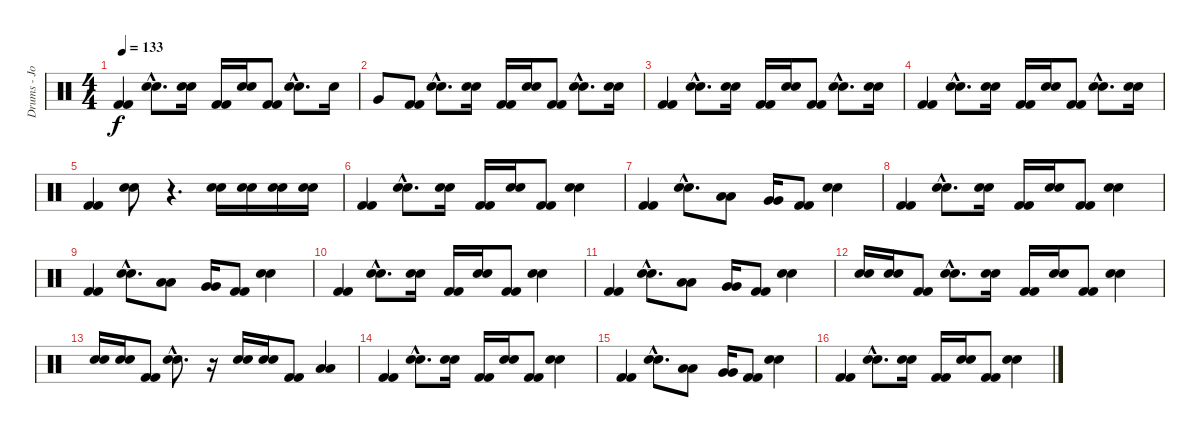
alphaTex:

\track ("Drums - Joe Daniels" "Drums - Jo") {instrument percussion}
\staff {score}
\articulation defaults
\ts (4 4)
\tempo 133
\clef neutral
\ks c
("Kick (hit) 2" "Kick (hit) 2").4{dy f} ("Snare (hit) 2"{hac} "Snare (hit) 2"{hac}).8{d} ("Snare (hit) 2" "Snare (hit) 2").16 ("Kick (hit) 2" "Kick (hit) 2").16 ("Snare (hit) 2" "Snare (hit) 2").16 ("Kick (hit) 2" "Kick (hit) 2").8 ("Snare (hit) 2"{hac} "Snare (hit) 2"{hac}).8{d} "Snare (hit) 2".16 |
"Very Low Tom (hit)".8 ("Kick (hit) 2" "Kick (hit) 2").8 ("Snare (hit) 2"{hac} "Snare (hit) 2"{hac}).8{d} ("Snare (hit) 2" "Snare (hit) 2").16 ("Kick (hit) 2" "Kick (hit) 2").16 ("Snare (hit) 2" "Snare (hit) 2").16 ("Kick (hit) 2" "Kick (hit) 2").8 ("Snare (hit) 2"{hac} "Snare (hit) 2"{hac}).8{d} ("Snare (hit) 2" "Snare (hit) 2").16 |
("Kick (hit) 2" "Kick (hit) 2").4 ("Snare (hit) 2"{hac} "Snare (hit) 2"{hac}).8{d} ("Snare (hit) 2" "Snare (hit) 2").16 ("Kick (hit) 2" "Kick (hit) 2").16 ("Snare (hit) 2" "Snare (hit) 2").16 ("Kick (hit) 2" "Kick (hit) 2").8 ("Snare (hit) 2"{hac} "Snare (hit) 2"{hac}).8{d} ("Snare (hit) 2" "Snare (hit) 2").16 |
("Kick (hit) 2" "Kick (hit) 2").4 ("Snare (hit) 2"{hac} "Snare (hit) 2"{hac}).8{d} ("Snare (hit) 2" "Snare (hit) 2").16 ("Kick (hit) 2" "Kick (hit) 2").16 ("Snare (hit) 2" "Snare (hit) 2").16 ("Kick (hit) 2" "Kick (hit) 2").8 ("Snare (hit) 2"{hac} "Snare (hit) 2"{hac}).8{d} ("Snare (hit) 2" "Snare (hit) 2").16 |
("Kick (hit) 2" "Kick (hit) 2").4 ("Snare (hit) 2" "Snare (hit) 2").8 r.4{d} ("Snare (hit) 2" "Snare (hit) 2").16 ("Snare (hit) 2" "Snare (hit) 2").16 ("Snare (hit) 2" "Snare (hit) 2").16 ("Snare (hit) 2" "Snare (hit) 2").16 |
("Kick (hit) 2" "Kick (hit) 2").4 ("Snare (hit) 2"{hac} "Snare (hit) 2"{hac}).8{d} ("Snare (hit) 2" "Snare (hit) 2").16 ("Kick (hit) 2" "Kick (hit) 2").16 ("Snare (hit) 2" "Snare (hit) 2").16 ("Kick (hit) 2" "Kick (hit) 2").8 ("Snare (hit) 2" "Snare (hit) 2").4 |
("Kick (hit) 2" "Kick (hit) 2").4 ("Snare (hit) 2"{hac} "Snare (hit) 2"{hac}).8{d} ("Low Tom (hit)" "Low Tom (hit)").8 ("Very Low Tom (hit)" "Very Low Tom (hit)").16 ("Kick (hit) 2" "Kick (hit) 2").8 ("Snare (hit) 2" "Snare (hit) 2").4 |
("Kick (hit) 2" "Kick (hit) 2").4 ("Snare (hit) 2"{hac} "Snare (hit) 2"{hac}).8{d} ("Snare (hit) 2" "Snare (hit) 2").16 ("Kick (hit) 2" "Kick (hit) 2").16 ("Snare (hit) 2" "Snare (hit) 2").16 ("Kick (hit) 2" "Kick (hit) 2").8 ("Snare (hit) 2" "Snare (hit) 2").4 |
("Kick (hit) 2" "Kick (hit) 2").4 ("Snare (hit) 2"{hac} "Snare (hit) 2"{hac}).8{d} ("Low Tom (hit)" "Low Tom (hit)").8 ("Very Low Tom (hit)" "Very Low Tom (hit)").16 ("Kick (hit) 2" "Kick (hit) 2").8 ("Snare (hit) 2" "Snare (hit) 2").4 |
("Kick (hit) 2" "Kick (hit) 2").4 ("Snare (hit) 2"{hac} "Snare (hit) 2"{hac}).8{d} ("Snare (hit) 2" "Snare (hit) 2").16 ("Kick (hit) 2" "Kick (hit) 2").16 ("Snare (hit) 2" "Snare (hit) 2").16 ("Kick (hit) 2" "Kick (hit) 2").8 ("Snare (hit) 2" "Snare (hit) 2").4 |
("Kick (hit) 2" "Kick (hit) 2").4 ("Snare (hit) 2"{hac} "Snare (hit) 2"{hac}).8{d} ("Low Tom (hit)" "Low Tom (hit)").8 ("Very Low Tom (hit)" "Very Low Tom (hit)").16 ("Kick (hit) 2" "Kick (hit) 2").8 ("Snare (hit) 2" "Snare (hit) 2").4 |
("Snare (hit) 2" "Snare (hit) 2").16 ("Snare (hit) 2" "Snare (hit) 2").16 ("Kick (hit) 2" "Kick (hit) 2").8 ("Snare (hit) 2"{hac} "Snare (hit) 2"{hac}).8{d} ("Snare (hit) 2" "Snare (hit) 2").16 ("Kick (hit) 2" "Kick (hit) 2").16 ("Snare (hit) 2" "Snare (hit) 2").16 ("Kick (hit) 2" "Kick (hit) 2").8 ("Snare (hit) 2" "Snare (hit) 2").4 |
("Snare (hit) 2" "Snare (hit) 2").16 ("Snare (hit) 2" "Snare (hit) 2").16 ("Kick (hit) 2" "Kick (hit) 2").8 ("Snare (hit) 2"{hac} "Snare (hit) 2"{hac}).8{d} r.16 ("Snare (hit) 2" "Snare (hit) 2").16 ("Snare (hit) 2" "Snare (hit) 2").16 ("Kick (hit) 2" "Kick (hit) 2").8 ("Low Tom (hit)" "Low Tom (hit)").4 |
("Kick (hit) 2" "Kick (hit) 2").4 ("Snare (hit) 2"{hac} "Snare (hit) 2"{hac}).8{d} ("Snare (hit) 2" "Snare (hit) 2").16 ("Kick (hit) 2" "Kick (hit) 2").16 ("Snare (hit) 2" "Snare (hit) 2").16 ("Kick (hit) 2" "Kick (hit) 2").8 ("Snare (hit) 2" "Snare (hit) 2").4 |
("Kick (hit) 2" "Kick (hit) 2").4 ("Snare (hit) 2"{hac} "Snare (hit) 2"{hac}).8{d} ("Low Tom (hit)" "Low Tom (hit)").8 ("Very Low Tom (hit)" "Very Low Tom (hit)").16 ("Kick (hit) 2" "Kick (hit) 2").8 ("Snare (hit) 2" "Snare (hit) 2").4 |
("Kick (hit) 2" "Kick (hit) 2").4 ("Snare (hit) 2"{hac} "Snare (hit) 2"{hac}).8{d} ("Snare (hit) 2" "Snare (hit) 2").16 ("Kick (hit) 2" "Kick (hit) 2").16 ("Snare (hit) 2" "Snare (hit) 2").16 ("Kick (hit) 2" "Kick (hit) 2").8 ("Snare (hit) 2" "Snare (hit) 2").4
